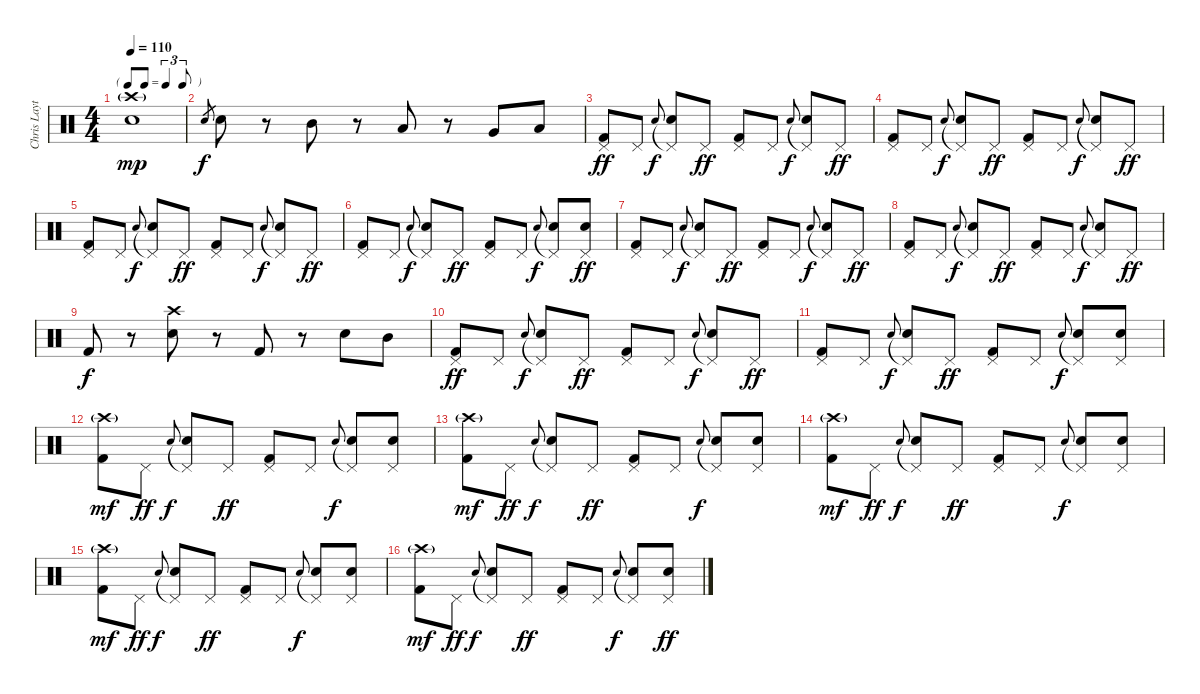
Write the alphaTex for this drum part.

\track ("Chris Layton" "Chris Layt") {instrument percussion}
\staff {score}
\articulation defaults
\ts (4 4)
\tf triplet8th
\tempo 110
\clef neutral
\ks c
("Crash high (hit)"{g} "Snare (hit) 2").1{dy mp} |
"Snare (hit) 2".8{gr dy f} "Snare (hit) 2".8 r.8 "Mid Tom (hit)".8 r.8 "Low Tom (hit)".8 r.8 "Very Low Tom (hit)".8 "Low Floor Tom (hit)".8 |
("Pedal Hi-Hat (hit)" "Kick (hit) 2").8{dy ff} "Pedal Hi-Hat (hit)".8 "Snare (hit) 2".8{gr onbeat dy f} ("Pedal Hi-Hat (hit)"{t} "Snare (hit) 2").8 "Pedal Hi-Hat (hit)".8{dy ff} ("Pedal Hi-Hat (hit)" "Kick (hit) 2").8 "Pedal Hi-Hat (hit)".8 "Snare (hit) 2".8{gr onbeat dy f} ("Pedal Hi-Hat (hit)"{t} "Snare (hit) 2").8 "Pedal Hi-Hat (hit)".8{dy ff} |
("Pedal Hi-Hat (hit)" "Kick (hit) 2").8 "Pedal Hi-Hat (hit)".8 "Snare (hit) 2".8{gr onbeat dy f} ("Pedal Hi-Hat (hit)"{t} "Snare (hit) 2").8 "Pedal Hi-Hat (hit)".8{dy ff} ("Pedal Hi-Hat (hit)" "Kick (hit) 2").8 "Pedal Hi-Hat (hit)".8 "Snare (hit) 2".8{gr onbeat dy f} ("Pedal Hi-Hat (hit)"{t} "Snare (hit) 2").8 "Pedal Hi-Hat (hit)".8{dy ff} |
("Pedal Hi-Hat (hit)" "Kick (hit) 2").8 "Pedal Hi-Hat (hit)".8 "Snare (hit) 2".8{gr onbeat dy f} ("Pedal Hi-Hat (hit)"{t} "Snare (hit) 2").8 "Pedal Hi-Hat (hit)".8{dy ff} ("Pedal Hi-Hat (hit)" "Kick (hit) 2").8 "Pedal Hi-Hat (hit)".8 "Snare (hit) 2".8{gr onbeat dy f} ("Pedal Hi-Hat (hit)"{t} "Snare (hit) 2").8 "Pedal Hi-Hat (hit)".8{dy ff} |
("Pedal Hi-Hat (hit)" "Kick (hit) 2").8 "Pedal Hi-Hat (hit)".8 "Snare (hit) 2".8{gr onbeat dy f} ("Pedal Hi-Hat (hit)"{t} "Snare (hit) 2").8 "Pedal Hi-Hat (hit)".8{dy ff} ("Pedal Hi-Hat (hit)" "Kick (hit) 2").8 "Pedal Hi-Hat (hit)".8 "Snare (hit) 2".8{gr onbeat dy f} ("Pedal Hi-Hat (hit)"{t} "Snare (hit) 2").8 ("Pedal Hi-Hat (hit)" "Snare (hit) 2").8{dy ff} |
("Pedal Hi-Hat (hit)" "Kick (hit) 2").8 "Pedal Hi-Hat (hit)".8 "Snare (hit) 2".8{gr onbeat dy f} ("Pedal Hi-Hat (hit)"{t} "Snare (hit) 2").8 "Pedal Hi-Hat (hit)".8{dy ff} ("Pedal Hi-Hat (hit)" "Kick (hit) 2").8 "Pedal Hi-Hat (hit)".8 "Snare (hit) 2".8{gr onbeat dy f} ("Pedal Hi-Hat (hit)"{t} "Snare (hit) 2").8 "Pedal Hi-Hat (hit)".8{dy ff} |
("Pedal Hi-Hat (hit)" "Kick (hit) 2").8 "Pedal Hi-Hat (hit)".8 "Snare (hit) 2".8{gr onbeat dy f} ("Pedal Hi-Hat (hit)"{t} "Snare (hit) 2").8 "Pedal Hi-Hat (hit)".8{dy ff} ("Pedal Hi-Hat (hit)" "Kick (hit) 2").8 "Pedal Hi-Hat (hit)".8 "Snare (hit) 2".8{gr onbeat dy f} ("Pedal Hi-Hat (hit)"{t} "Snare (hit) 2").8 "Pedal Hi-Hat (hit)".8{dy ff} |
"Kick (hit) 2".8{dy f} r.8 ("Crash high (hit)" "Snare (hit) 2").8 r.8 "Kick (hit) 2".8 r.8 "Snare (hit) 2".8 "Mid Tom (hit)".8 |
("Pedal Hi-Hat (hit)" "Kick (hit) 2").8{dy ff} "Pedal Hi-Hat (hit)".8 "Snare (hit) 2".8{gr onbeat dy f} ("Pedal Hi-Hat (hit)"{t} "Snare (hit) 2").8 "Pedal Hi-Hat (hit)".8{dy ff} ("Pedal Hi-Hat (hit)" "Kick (hit) 2").8 "Pedal Hi-Hat (hit)".8 "Snare (hit) 2".8{gr onbeat dy f} ("Pedal Hi-Hat (hit)"{t} "Snare (hit) 2").8 "Pedal Hi-Hat (hit)".8{dy ff} |
("Pedal Hi-Hat (hit)" "Kick (hit) 2").8 "Pedal Hi-Hat (hit)".8 "Snare (hit) 2".8{gr onbeat dy f} ("Pedal Hi-Hat (hit)"{t} "Snare (hit) 2").8 "Pedal Hi-Hat (hit)".8{dy ff} ("Pedal Hi-Hat (hit)" "Kick (hit) 2").8 "Pedal Hi-Hat (hit)".8 "Snare (hit) 2".8{gr onbeat dy f} ("Pedal Hi-Hat (hit)"{t} "Snare (hit) 2").8 ("Pedal Hi-Hat (hit)" "Snare (hit) 2").8 |
("Crash high (hit)"{g} "Kick (hit) 2").8{dy mf} "Pedal Hi-Hat (hit)".8{dy ff} "Snare (hit) 2".8{gr onbeat dy f} ("Pedal Hi-Hat (hit)"{t} "Snare (hit) 2").8 "Pedal Hi-Hat (hit)".8{dy ff} ("Pedal Hi-Hat (hit)" "Kick (hit) 2").8 "Pedal Hi-Hat (hit)".8 "Snare (hit) 2".8{gr onbeat dy f} ("Pedal Hi-Hat (hit)"{t} "Snare (hit) 2").8 ("Pedal Hi-Hat (hit)" "Snare (hit) 2").8 |
("Crash high (hit)"{g} "Kick (hit) 2").8{dy mf} "Pedal Hi-Hat (hit)".8{dy ff} "Snare (hit) 2".8{gr onbeat dy f} ("Pedal Hi-Hat (hit)"{t} "Snare (hit) 2").8 "Pedal Hi-Hat (hit)".8{dy ff} ("Pedal Hi-Hat (hit)" "Kick (hit) 2").8 "Pedal Hi-Hat (hit)".8 "Snare (hit) 2".8{gr onbeat dy f} ("Pedal Hi-Hat (hit)"{t} "Snare (hit) 2").8 ("Pedal Hi-Hat (hit)" "Snare (hit) 2").8 |
("Crash high (hit)"{g} "Kick (hit) 2").8{dy mf} "Pedal Hi-Hat (hit)".8{dy ff} "Snare (hit) 2".8{gr onbeat dy f} ("Pedal Hi-Hat (hit)"{t} "Snare (hit) 2").8 "Pedal Hi-Hat (hit)".8{dy ff} ("Pedal Hi-Hat (hit)" "Kick (hit) 2").8 "Pedal Hi-Hat (hit)".8 "Snare (hit) 2".8{gr onbeat dy f} ("Pedal Hi-Hat (hit)"{t} "Snare (hit) 2").8 ("Pedal Hi-Hat (hit)" "Snare (hit) 2").8 |
("Crash high (hit)"{g} "Kick (hit) 2").8{dy mf} "Pedal Hi-Hat (hit)".8{dy ff} "Snare (hit) 2".8{gr onbeat dy f} ("Pedal Hi-Hat (hit)"{t} "Snare (hit) 2").8 "Pedal Hi-Hat (hit)".8{dy ff} ("Pedal Hi-Hat (hit)" "Kick (hit) 2").8 "Pedal Hi-Hat (hit)".8 "Snare (hit) 2".8{gr onbeat dy f} ("Pedal Hi-Hat (hit)"{t} "Snare (hit) 2").8 ("Pedal Hi-Hat (hit)" "Snare (hit) 2").8 |
("Crash high (hit)"{g} "Kick (hit) 2").8{dy mf} "Pedal Hi-Hat (hit)".8{dy ff} "Snare (hit) 2".8{gr onbeat dy f} ("Pedal Hi-Hat (hit)"{t} "Snare (hit) 2").8 "Pedal Hi-Hat (hit)".8{dy ff} ("Pedal Hi-Hat (hit)" "Kick (hit) 2").8 "Pedal Hi-Hat (hit)".8 "Snare (hit) 2".8{gr onbeat dy f} ("Pedal Hi-Hat (hit)"{t} "Snare (hit) 2").8 ("Pedal Hi-Hat (hit)" "Snare (hit) 2").8{dy ff}
